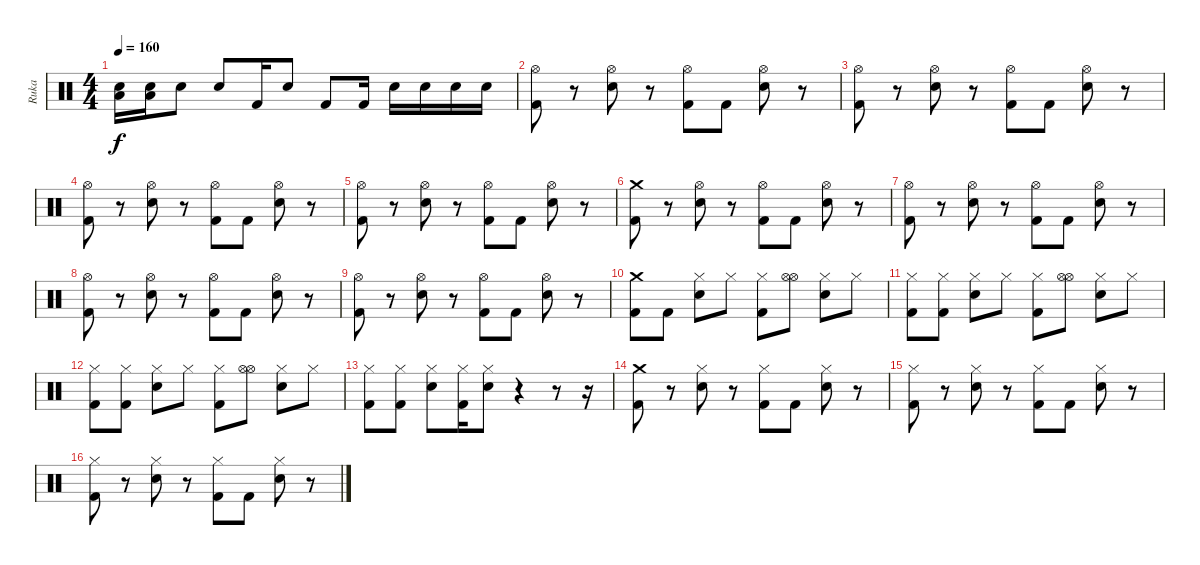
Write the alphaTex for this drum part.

\track ("Ruka" "Ruka") {instrument percussion}
\staff {score}
\articulation defaults
\ts (4 4)
\tempo 160
\clef neutral
\ks c
("Snare (hit) 2" "Low Floor Tom (hit)").16{dy f} ("Snare (hit) 2" "Low Floor Tom (hit)").16 "Snare (hit) 2".8 "Snare (hit) 2".8 "Kick (hit) 2".16 "Snare (hit) 2".8 "Kick (hit) 2".8 "Kick (hit) 2".16 "Snare (hit) 2".16 "Snare (hit) 2".16 "Snare (hit) 2".16 "Snare (hit) 2".16 |
("Kick (hit) 2" "Hi-Hat (open)").8 r.8 ("Electric Snare (hit)" "Hi-Hat (open)").8 r.8 ("Kick (hit) 2" "Hi-Hat (open)").8 "Kick (hit) 2".8 ("Electric Snare (hit)" "Hi-Hat (open)").8 r.8 |
("Kick (hit) 2" "Hi-Hat (open)").8 r.8 ("Electric Snare (hit)" "Hi-Hat (open)").8 r.8 ("Kick (hit) 2" "Hi-Hat (open)").8 "Kick (hit) 2".8 ("Electric Snare (hit)" "Hi-Hat (open)").8 r.8 |
("Kick (hit) 2" "Hi-Hat (open)").8 r.8 ("Electric Snare (hit)" "Hi-Hat (open)").8 r.8 ("Kick (hit) 2" "Hi-Hat (open)").8 "Kick (hit) 2".8 ("Electric Snare (hit)" "Hi-Hat (open)").8 r.8 |
("Kick (hit) 2" "Hi-Hat (open)").8 r.8 ("Electric Snare (hit)" "Hi-Hat (open)").8 r.8 ("Kick (hit) 2" "Hi-Hat (open)").8 "Kick (hit) 2".8 ("Electric Snare (hit)" "Hi-Hat (open)").8 r.8 |
("Kick (hit) 2" "Crash medium (hit)").8 r.8 ("Electric Snare (hit)" "Hi-Hat (open)").8 r.8 ("Kick (hit) 2" "Hi-Hat (open)").8 "Kick (hit) 2".8 ("Electric Snare (hit)" "Hi-Hat (open)").8 r.8 |
("Kick (hit) 2" "Hi-Hat (open)").8 r.8 ("Electric Snare (hit)" "Hi-Hat (open)").8 r.8 ("Kick (hit) 2" "Hi-Hat (open)").8 "Kick (hit) 2".8 ("Electric Snare (hit)" "Hi-Hat (open)").8 r.8 |
("Kick (hit) 2" "Hi-Hat (open)").8 r.8 ("Electric Snare (hit)" "Hi-Hat (open)").8 r.8 ("Kick (hit) 2" "Hi-Hat (open)").8 "Kick (hit) 2".8 ("Electric Snare (hit)" "Hi-Hat (open)").8 r.8 |
("Kick (hit) 2" "Hi-Hat (open)").8 r.8 ("Electric Snare (hit)" "Hi-Hat (open)").8 r.8 ("Kick (hit) 2" "Hi-Hat (open)").8 "Kick (hit) 2".8 ("Electric Snare (hit)" "Hi-Hat (open)").8 r.8 |
("Kick (hit) 2" "Crash medium (hit)").8 "Kick (hit) 2".8 ("Electric Snare (hit)" "Hi-Hat (closed)").8 "Hi-Hat (closed)".8 ("Kick (hit) 2" "Hi-Hat (closed)").8 ("Hi-Hat (open)" "Hi-Hat (open)").8 ("Electric Snare (hit)" "Hi-Hat (closed)").8 "Hi-Hat (closed)".8 |
("Kick (hit) 2" "Hi-Hat (closed)").8 ("Kick (hit) 2" "Hi-Hat (closed)").8 ("Electric Snare (hit)" "Hi-Hat (closed)").8 "Hi-Hat (closed)".8 ("Kick (hit) 2" "Hi-Hat (closed)").8 ("Hi-Hat (open)" "Hi-Hat (open)").8 ("Electric Snare (hit)" "Hi-Hat (closed)").8 "Hi-Hat (closed)".8 |
("Kick (hit) 2" "Hi-Hat (closed)").8 ("Kick (hit) 2" "Hi-Hat (closed)").8 ("Electric Snare (hit)" "Hi-Hat (closed)").8 "Hi-Hat (closed)".8 ("Kick (hit) 2" "Hi-Hat (closed)").8 ("Hi-Hat (open)" "Hi-Hat (open)").8 ("Electric Snare (hit)" "Hi-Hat (closed)").8 "Hi-Hat (closed)".8 |
("Kick (hit) 2" "Hi-Hat (closed)").8 ("Kick (hit) 2" "Hi-Hat (closed)").8 ("Electric Snare (hit)" "Hi-Hat (closed)").8 ("Kick (hit) 2" "Hi-Hat (closed)").16 ("Electric Snare (hit)" "Hi-Hat (closed)").8 r.4 r.8 r.16 |
("Kick (hit) 2" "Crash medium (hit)").8 r.8 ("Electric Snare (hit)" "Hi-Hat (closed)").8 r.8 ("Kick (hit) 2" "Hi-Hat (closed)").8 "Kick (hit) 2".8 ("Electric Snare (hit)" "Hi-Hat (closed)").8 r.8 |
("Kick (hit) 2" "Hi-Hat (closed)").8 r.8 ("Electric Snare (hit)" "Hi-Hat (closed)").8 r.8 ("Kick (hit) 2" "Hi-Hat (closed)").8 "Kick (hit) 2".8 ("Electric Snare (hit)" "Hi-Hat (closed)").8 r.8 |
("Kick (hit) 2" "Hi-Hat (closed)").8 r.8 ("Electric Snare (hit)" "Hi-Hat (closed)").8 r.8 ("Kick (hit) 2" "Hi-Hat (closed)").8 "Kick (hit) 2".8 ("Electric Snare (hit)" "Hi-Hat (closed)").8 r.8
